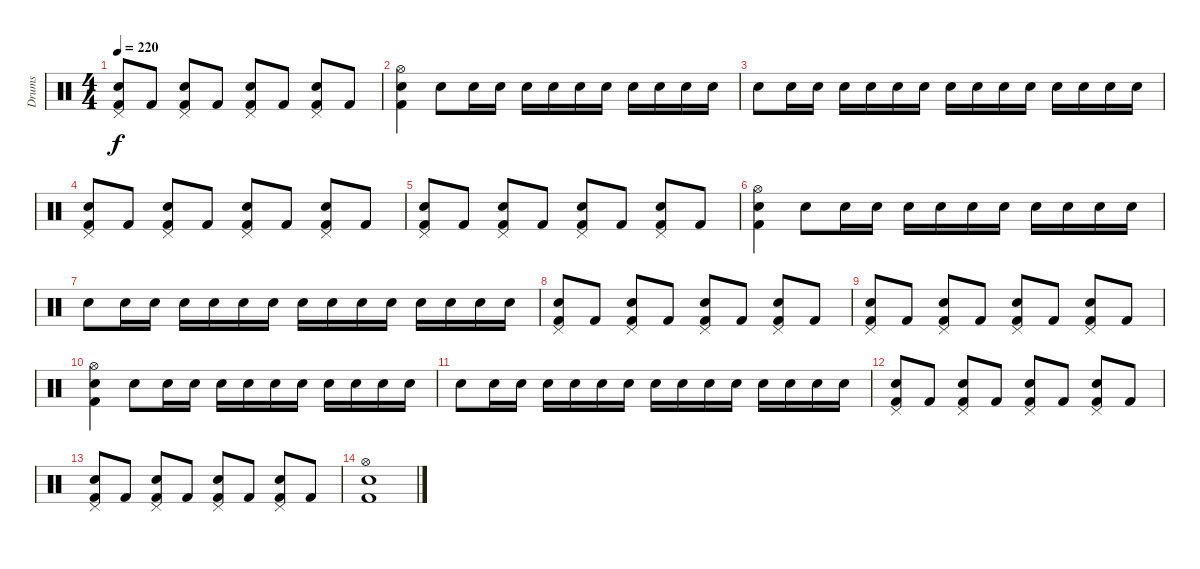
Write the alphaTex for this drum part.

\track ("Drums" "Drums") {instrument percussion}
\staff {score}
\articulation defaults
\ts (4 4)
\tempo 220
\clef neutral
\ks c
("Pedal Hi-Hat (hit)" "Snare (hit) 2" "Kick (hit) 2").8{dy f} "Kick (hit) 2".8 ("Pedal Hi-Hat (hit)" "Snare (hit) 2" "Kick (hit) 2").8 "Kick (hit) 2".8 ("Pedal Hi-Hat (hit)" "Snare (hit) 2" "Kick (hit) 2").8 "Kick (hit) 2".8 ("Pedal Hi-Hat (hit)" "Snare (hit) 2" "Kick (hit) 2").8 "Kick (hit) 2".8 |
("Hi-Hat (open)" "Snare (hit) 2" "Kick (hit) 2").4 "Snare (hit) 2".8 "Snare (hit) 2".16 "Snare (hit) 2".16 "Snare (hit) 2".16 "Snare (hit) 2".16 "Snare (hit) 2".16 "Snare (hit) 2".16 "Snare (hit) 2".16 "Snare (hit) 2".16 "Snare (hit) 2".16 "Snare (hit) 2".16 |
"Snare (hit) 2".8 "Snare (hit) 2".16 "Snare (hit) 2".16 "Snare (hit) 2".16 "Snare (hit) 2".16 "Snare (hit) 2".16 "Snare (hit) 2".16 "Snare (hit) 2".16 "Snare (hit) 2".16 "Snare (hit) 2".16 "Snare (hit) 2".16 "Snare (hit) 2".16 "Snare (hit) 2".16 "Snare (hit) 2".16 "Snare (hit) 2".16 |
("Pedal Hi-Hat (hit)" "Snare (hit) 2" "Kick (hit) 2").8 "Kick (hit) 2".8 ("Pedal Hi-Hat (hit)" "Snare (hit) 2" "Kick (hit) 2").8 "Kick (hit) 2".8 ("Pedal Hi-Hat (hit)" "Snare (hit) 2" "Kick (hit) 2").8 "Kick (hit) 2".8 ("Pedal Hi-Hat (hit)" "Snare (hit) 2" "Kick (hit) 2").8 "Kick (hit) 2".8 |
("Pedal Hi-Hat (hit)" "Snare (hit) 2" "Kick (hit) 2").8 "Kick (hit) 2".8 ("Pedal Hi-Hat (hit)" "Snare (hit) 2" "Kick (hit) 2").8 "Kick (hit) 2".8 ("Pedal Hi-Hat (hit)" "Snare (hit) 2" "Kick (hit) 2").8 "Kick (hit) 2".8 ("Pedal Hi-Hat (hit)" "Snare (hit) 2" "Kick (hit) 2").8 "Kick (hit) 2".8 |
("Hi-Hat (open)" "Snare (hit) 2" "Kick (hit) 2").4 "Snare (hit) 2".8 "Snare (hit) 2".16 "Snare (hit) 2".16 "Snare (hit) 2".16 "Snare (hit) 2".16 "Snare (hit) 2".16 "Snare (hit) 2".16 "Snare (hit) 2".16 "Snare (hit) 2".16 "Snare (hit) 2".16 "Snare (hit) 2".16 |
"Snare (hit) 2".8 "Snare (hit) 2".16 "Snare (hit) 2".16 "Snare (hit) 2".16 "Snare (hit) 2".16 "Snare (hit) 2".16 "Snare (hit) 2".16 "Snare (hit) 2".16 "Snare (hit) 2".16 "Snare (hit) 2".16 "Snare (hit) 2".16 "Snare (hit) 2".16 "Snare (hit) 2".16 "Snare (hit) 2".16 "Snare (hit) 2".16 |
("Pedal Hi-Hat (hit)" "Snare (hit) 2" "Kick (hit) 2").8 "Kick (hit) 2".8 ("Pedal Hi-Hat (hit)" "Snare (hit) 2" "Kick (hit) 2").8 "Kick (hit) 2".8 ("Pedal Hi-Hat (hit)" "Snare (hit) 2" "Kick (hit) 2").8 "Kick (hit) 2".8 ("Pedal Hi-Hat (hit)" "Snare (hit) 2" "Kick (hit) 2").8 "Kick (hit) 2".8 |
("Pedal Hi-Hat (hit)" "Snare (hit) 2" "Kick (hit) 2").8 "Kick (hit) 2".8 ("Pedal Hi-Hat (hit)" "Snare (hit) 2" "Kick (hit) 2").8 "Kick (hit) 2".8 ("Pedal Hi-Hat (hit)" "Snare (hit) 2" "Kick (hit) 2").8 "Kick (hit) 2".8 ("Pedal Hi-Hat (hit)" "Snare (hit) 2" "Kick (hit) 2").8 "Kick (hit) 2".8 |
("Hi-Hat (open)" "Snare (hit) 2" "Kick (hit) 2").4 "Snare (hit) 2".8 "Snare (hit) 2".16 "Snare (hit) 2".16 "Snare (hit) 2".16 "Snare (hit) 2".16 "Snare (hit) 2".16 "Snare (hit) 2".16 "Snare (hit) 2".16 "Snare (hit) 2".16 "Snare (hit) 2".16 "Snare (hit) 2".16 |
"Snare (hit) 2".8 "Snare (hit) 2".16 "Snare (hit) 2".16 "Snare (hit) 2".16 "Snare (hit) 2".16 "Snare (hit) 2".16 "Snare (hit) 2".16 "Snare (hit) 2".16 "Snare (hit) 2".16 "Snare (hit) 2".16 "Snare (hit) 2".16 "Snare (hit) 2".16 "Snare (hit) 2".16 "Snare (hit) 2".16 "Snare (hit) 2".16 |
("Pedal Hi-Hat (hit)" "Snare (hit) 2" "Kick (hit) 2").8 "Kick (hit) 2".8 ("Pedal Hi-Hat (hit)" "Snare (hit) 2" "Kick (hit) 2").8 "Kick (hit) 2".8 ("Pedal Hi-Hat (hit)" "Snare (hit) 2" "Kick (hit) 2").8 "Kick (hit) 2".8 ("Pedal Hi-Hat (hit)" "Snare (hit) 2" "Kick (hit) 2").8 "Kick (hit) 2".8 |
("Pedal Hi-Hat (hit)" "Snare (hit) 2" "Kick (hit) 2").8 "Kick (hit) 2".8 ("Pedal Hi-Hat (hit)" "Snare (hit) 2" "Kick (hit) 2").8 "Kick (hit) 2".8 ("Pedal Hi-Hat (hit)" "Snare (hit) 2" "Kick (hit) 2").8 "Kick (hit) 2".8 ("Pedal Hi-Hat (hit)" "Snare (hit) 2" "Kick (hit) 2").8 "Kick (hit) 2".8 |
("Hi-Hat (open)" "Snare (hit) 2" "Kick (hit) 2").1
